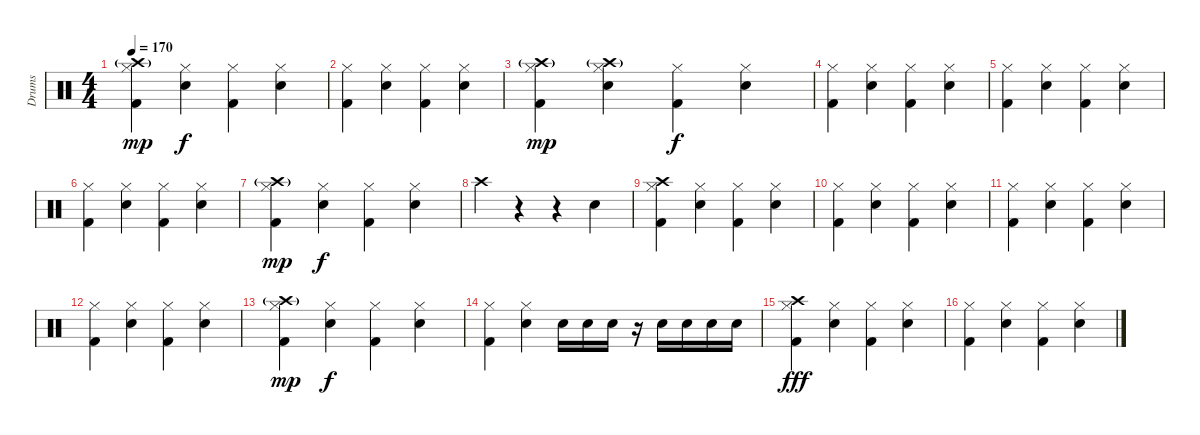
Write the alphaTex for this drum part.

\track ("Drums" "Drums") {instrument percussion}
\staff {score}
\articulation defaults
\ts (4 4)
\tempo 170
\clef neutral
\ks c
("Crash high (hit)"{g} "Hi-Hat (closed)" "Kick (hit) 2").4{dy mp} ("Hi-Hat (closed)" "Electric Snare (hit)").4{dy f} ("Hi-Hat (closed)" "Kick (hit) 2").4 ("Hi-Hat (closed)" "Electric Snare (hit)").4 |
("Hi-Hat (closed)" "Kick (hit) 2").4 ("Hi-Hat (closed)" "Electric Snare (hit)").4 ("Hi-Hat (closed)" "Kick (hit) 2").4 ("Hi-Hat (closed)" "Electric Snare (hit)").4 |
("Crash high (hit)"{g} "Hi-Hat (closed)" "Kick (hit) 2").4{dy mp} ("Crash high (hit)"{g} "Hi-Hat (closed)" "Electric Snare (hit)").4 ("Hi-Hat (closed)" "Kick (hit) 2").4{dy f} ("Hi-Hat (closed)" "Electric Snare (hit)").4 |
("Hi-Hat (closed)" "Kick (hit) 2").4 ("Hi-Hat (closed)" "Electric Snare (hit)").4 ("Hi-Hat (closed)" "Kick (hit) 2").4 ("Hi-Hat (closed)" "Electric Snare (hit)").4 |
("Hi-Hat (closed)" "Kick (hit) 2").4 ("Hi-Hat (closed)" "Electric Snare (hit)").4 ("Hi-Hat (closed)" "Kick (hit) 2").4 ("Hi-Hat (closed)" "Electric Snare (hit)").4 |
("Hi-Hat (closed)" "Kick (hit) 2").4 ("Hi-Hat (closed)" "Electric Snare (hit)").4 ("Hi-Hat (closed)" "Kick (hit) 2").4 ("Hi-Hat (closed)" "Electric Snare (hit)").4 |
("Crash high (hit)"{g} "Hi-Hat (closed)" "Kick (hit) 2").4{dy mp} ("Hi-Hat (closed)" "Electric Snare (hit)").4{dy f} ("Hi-Hat (closed)" "Kick (hit) 2").4 ("Hi-Hat (closed)" "Electric Snare (hit)").4 |
"Crash high (hit)".4 r.4 r.4 "Electric Snare (hit)".4 |
("Crash high (hit)" "Hi-Hat (closed)" "Kick (hit) 2").4 ("Hi-Hat (closed)" "Electric Snare (hit)").4 ("Hi-Hat (closed)" "Kick (hit) 2").4 ("Hi-Hat (closed)" "Electric Snare (hit)").4 |
("Hi-Hat (closed)" "Kick (hit) 2").4 ("Hi-Hat (closed)" "Electric Snare (hit)").4 ("Hi-Hat (closed)" "Kick (hit) 2").4 ("Hi-Hat (closed)" "Electric Snare (hit)").4 |
("Hi-Hat (closed)" "Kick (hit) 2").4 ("Hi-Hat (closed)" "Electric Snare (hit)").4 ("Hi-Hat (closed)" "Kick (hit) 2").4 ("Hi-Hat (closed)" "Electric Snare (hit)").4 |
("Hi-Hat (closed)" "Kick (hit) 2").4 ("Hi-Hat (closed)" "Electric Snare (hit)").4 ("Hi-Hat (closed)" "Kick (hit) 2").4 ("Hi-Hat (closed)" "Electric Snare (hit)").4 |
("Crash high (hit)"{g} "Hi-Hat (closed)" "Kick (hit) 2").4{dy mp} ("Hi-Hat (closed)" "Electric Snare (hit)").4{dy f} ("Hi-Hat (closed)" "Kick (hit) 2").4 ("Hi-Hat (closed)" "Electric Snare (hit)").4 |
("Hi-Hat (closed)" "Kick (hit) 2").4 ("Hi-Hat (closed)" "Electric Snare (hit)").4 "Electric Snare (hit)".16 "Electric Snare (hit)".16 "Electric Snare (hit)".16 r.16 "Electric Snare (hit)".16 "Electric Snare (hit)".16 "Electric Snare (hit)".16 "Electric Snare (hit)".16 |
("Crash high (hit)" "Hi-Hat (closed)" "Kick (hit) 2").4{dy fff} ("Hi-Hat (closed)" "Electric Snare (hit)").4 ("Hi-Hat (closed)" "Kick (hit) 2").4 ("Hi-Hat (closed)" "Electric Snare (hit)").4 |
("Hi-Hat (closed)" "Kick (hit) 2").4 ("Hi-Hat (closed)" "Electric Snare (hit)").4 ("Hi-Hat (closed)" "Kick (hit) 2").4 ("Hi-Hat (closed)" "Electric Snare (hit)").4
